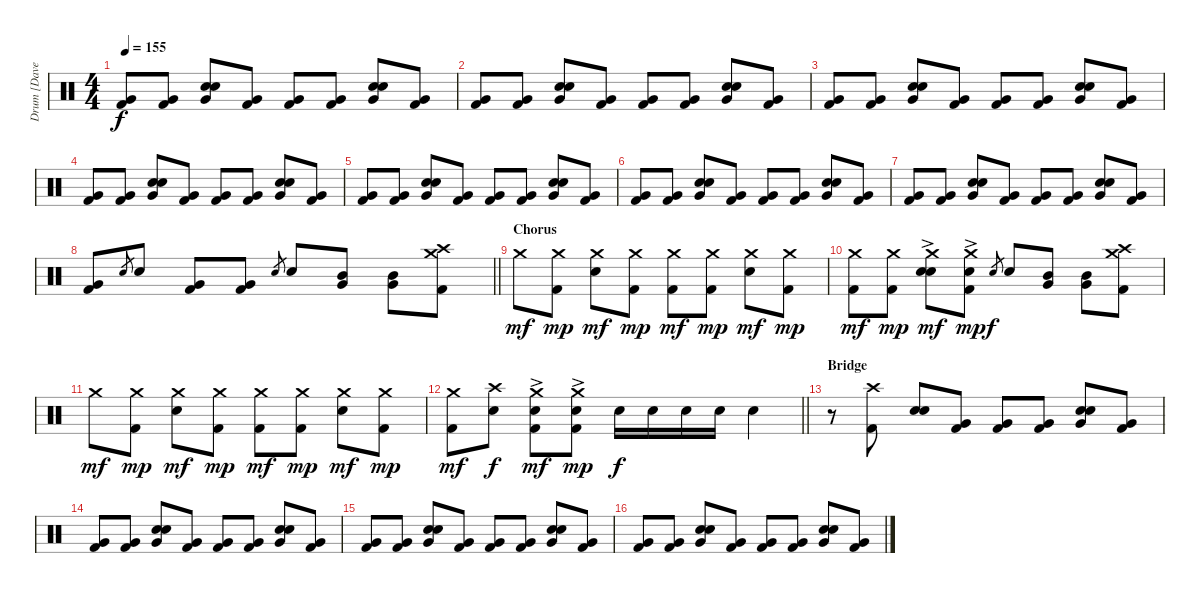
\track ("Drum [Dave Grohl]" "Drum [Dave") {instrument percussion}
\staff {score}
\articulation defaults
\ts (4 4)
\tempo 155
\clef neutral
\ks c
("Very Low Tom (hit)" "Kick (hit) 2").8{dy f} ("Very Low Tom (hit)" "Kick (hit) 2").8 ("Hand Clap (hit)" "Very Low Tom (hit)" "Snare (hit) 2").8 ("Very Low Tom (hit)" "Kick (hit) 2").8 ("Very Low Tom (hit)" "Kick (hit) 2").8 ("Very Low Tom (hit)" "Kick (hit) 2").8 ("Hand Clap (hit)" "Very Low Tom (hit)" "Snare (hit) 2").8 ("Very Low Tom (hit)" "Kick (hit) 2").8 |
("Very Low Tom (hit)" "Kick (hit) 2").8 ("Very Low Tom (hit)" "Kick (hit) 2").8 ("Hand Clap (hit)" "Very Low Tom (hit)" "Snare (hit) 2").8 ("Very Low Tom (hit)" "Kick (hit) 2").8 ("Very Low Tom (hit)" "Kick (hit) 2").8 ("Very Low Tom (hit)" "Kick (hit) 2").8 ("Hand Clap (hit)" "Very Low Tom (hit)" "Snare (hit) 2").8 ("Very Low Tom (hit)" "Kick (hit) 2").8 |
("Very Low Tom (hit)" "Kick (hit) 2").8 ("Very Low Tom (hit)" "Kick (hit) 2").8 ("Hand Clap (hit)" "Very Low Tom (hit)" "Snare (hit) 2").8 ("Very Low Tom (hit)" "Kick (hit) 2").8 ("Very Low Tom (hit)" "Kick (hit) 2").8 ("Very Low Tom (hit)" "Kick (hit) 2").8 ("Hand Clap (hit)" "Very Low Tom (hit)" "Snare (hit) 2").8 ("Very Low Tom (hit)" "Kick (hit) 2").8 |
("Very Low Tom (hit)" "Kick (hit) 2").8 ("Very Low Tom (hit)" "Kick (hit) 2").8 ("Hand Clap (hit)" "Very Low Tom (hit)" "Snare (hit) 2").8 ("Very Low Tom (hit)" "Kick (hit) 2").8 ("Very Low Tom (hit)" "Kick (hit) 2").8 ("Very Low Tom (hit)" "Kick (hit) 2").8 ("Hand Clap (hit)" "Very Low Tom (hit)" "Snare (hit) 2").8 ("Very Low Tom (hit)" "Kick (hit) 2").8 |
("Very Low Tom (hit)" "Kick (hit) 2").8 ("Very Low Tom (hit)" "Kick (hit) 2").8 ("Hand Clap (hit)" "Very Low Tom (hit)" "Snare (hit) 2").8 ("Very Low Tom (hit)" "Kick (hit) 2").8 ("Very Low Tom (hit)" "Kick (hit) 2").8 ("Very Low Tom (hit)" "Kick (hit) 2").8 ("Hand Clap (hit)" "Very Low Tom (hit)" "Snare (hit) 2").8 ("Very Low Tom (hit)" "Kick (hit) 2").8 |
("Very Low Tom (hit)" "Kick (hit) 2").8 ("Very Low Tom (hit)" "Kick (hit) 2").8 ("Hand Clap (hit)" "Very Low Tom (hit)" "Snare (hit) 2").8 ("Very Low Tom (hit)" "Kick (hit) 2").8 ("Very Low Tom (hit)" "Kick (hit) 2").8 ("Very Low Tom (hit)" "Kick (hit) 2").8 ("Hand Clap (hit)" "Very Low Tom (hit)" "Snare (hit) 2").8 ("Very Low Tom (hit)" "Kick (hit) 2").8 |
("Very Low Tom (hit)" "Kick (hit) 2").8 ("Very Low Tom (hit)" "Kick (hit) 2").8 ("Hand Clap (hit)" "Very Low Tom (hit)" "Snare (hit) 2").8 ("Very Low Tom (hit)" "Kick (hit) 2").8 ("Very Low Tom (hit)" "Kick (hit) 2").8 ("Very Low Tom (hit)" "Kick (hit) 2").8 ("Hand Clap (hit)" "Very Low Tom (hit)" "Snare (hit) 2").8 ("Very Low Tom (hit)" "Kick (hit) 2").8 |
\barLineRight lightlight
("Very Low Tom (hit)" "Kick (hit) 2").8 "Snare (hit) 2".8{gr} "Snare (hit) 2".8 ("Very Low Tom (hit)" "Kick (hit) 2").8 ("Very Low Tom (hit)" "Kick (hit) 2").8 "Snare (hit) 2".8{gr} "Snare (hit) 2".8 ("Mid Tom (hit)" "Very Low Tom (hit)").8 ("Mid Tom (hit)" "Very Low Tom (hit)").8 ("Crash high (hit)" "Crash medium (hit)" "Kick (hit) 2").8 |
\section ("" "Chorus")
"Crash medium (hit)".8{dy mf} ("Crash medium (hit)" "Kick (hit) 2").8{dy mp} ("Crash medium (hit)" "Snare (hit) 2").8{dy mf} ("Crash medium (hit)" "Kick (hit) 2").8{dy mp} ("Crash medium (hit)" "Kick (hit) 2").8{dy mf} ("Crash medium (hit)" "Kick (hit) 2").8{dy mp} ("Crash medium (hit)" "Snare (hit) 2").8{dy mf} ("Crash medium (hit)" "Kick (hit) 2").8{dy mp} |
("Crash medium (hit)" "Kick (hit) 2").8{dy mf} ("Crash medium (hit)" "Kick (hit) 2").8{dy mp} ("Hand Clap (hit)"{ac} "Crash medium (hit)" "Snare (hit) 2").8{dy mf} ("Hand Clap (hit)"{ac} "Crash medium (hit)" "Kick (hit) 2").8{dy mp} "Snare (hit) 2".8{gr dy f} "Snare (hit) 2".8 ("Mid Tom (hit)" "Very Low Tom (hit)").8 ("Mid Tom (hit)" "Very Low Tom (hit)").8 ("Crash high (hit)" "Crash medium (hit)" "Kick (hit) 2").8 |
"Crash medium (hit)".8{dy mf} ("Crash medium (hit)" "Kick (hit) 2").8{dy mp} ("Crash medium (hit)" "Snare (hit) 2").8{dy mf} ("Crash medium (hit)" "Kick (hit) 2").8{dy mp} ("Crash medium (hit)" "Kick (hit) 2").8{dy mf} ("Crash medium (hit)" "Kick (hit) 2").8{dy mp} ("Crash medium (hit)" "Snare (hit) 2").8{dy mf} ("Crash medium (hit)" "Kick (hit) 2").8{dy mp} |
\barLineRight lightlight
("Crash medium (hit)" "Kick (hit) 2").8{dy mf} ("Crash high (hit)" "Snare (hit) 2").8{dy f} ("Hand Clap (hit)"{ac} "Crash medium (hit)" "Kick (hit) 2").8{dy mf} ("Hand Clap (hit)"{ac} "Crash medium (hit)" "Kick (hit) 2").8{dy mp} "Snare (hit) 2".16{dy f} "Snare (hit) 2".16 "Snare (hit) 2".16 "Snare (hit) 2".16 "Snare (hit) 2".4 |
\section ("" "Bridge")
r.8 ("Crash high (hit)" "Kick (hit) 2").8 ("Hand Clap (hit)" "Snare (hit) 2").8 ("Very Low Tom (hit)" "Kick (hit) 2").8 ("Very Low Tom (hit)" "Kick (hit) 2").8 ("Very Low Tom (hit)" "Kick (hit) 2").8 ("Hand Clap (hit)" "Very Low Tom (hit)" "Snare (hit) 2").8 ("Very Low Tom (hit)" "Kick (hit) 2").8 |
("Very Low Tom (hit)" "Kick (hit) 2").8 ("Very Low Tom (hit)" "Kick (hit) 2").8 ("Hand Clap (hit)" "Very Low Tom (hit)" "Snare (hit) 2").8 ("Very Low Tom (hit)" "Kick (hit) 2").8 ("Very Low Tom (hit)" "Kick (hit) 2").8 ("Very Low Tom (hit)" "Kick (hit) 2").8 ("Hand Clap (hit)" "Very Low Tom (hit)" "Snare (hit) 2").8 ("Very Low Tom (hit)" "Kick (hit) 2").8 |
("Very Low Tom (hit)" "Kick (hit) 2").8 ("Very Low Tom (hit)" "Kick (hit) 2").8 ("Hand Clap (hit)" "Very Low Tom (hit)" "Snare (hit) 2").8 ("Very Low Tom (hit)" "Kick (hit) 2").8 ("Very Low Tom (hit)" "Kick (hit) 2").8 ("Very Low Tom (hit)" "Kick (hit) 2").8 ("Hand Clap (hit)" "Very Low Tom (hit)" "Snare (hit) 2").8 ("Very Low Tom (hit)" "Kick (hit) 2").8 |
("Very Low Tom (hit)" "Kick (hit) 2").8 ("Very Low Tom (hit)" "Kick (hit) 2").8 ("Hand Clap (hit)" "Very Low Tom (hit)" "Snare (hit) 2").8 ("Very Low Tom (hit)" "Kick (hit) 2").8 ("Very Low Tom (hit)" "Kick (hit) 2").8 ("Very Low Tom (hit)" "Kick (hit) 2").8 ("Hand Clap (hit)" "Very Low Tom (hit)" "Snare (hit) 2").8 ("Very Low Tom (hit)" "Kick (hit) 2").8
